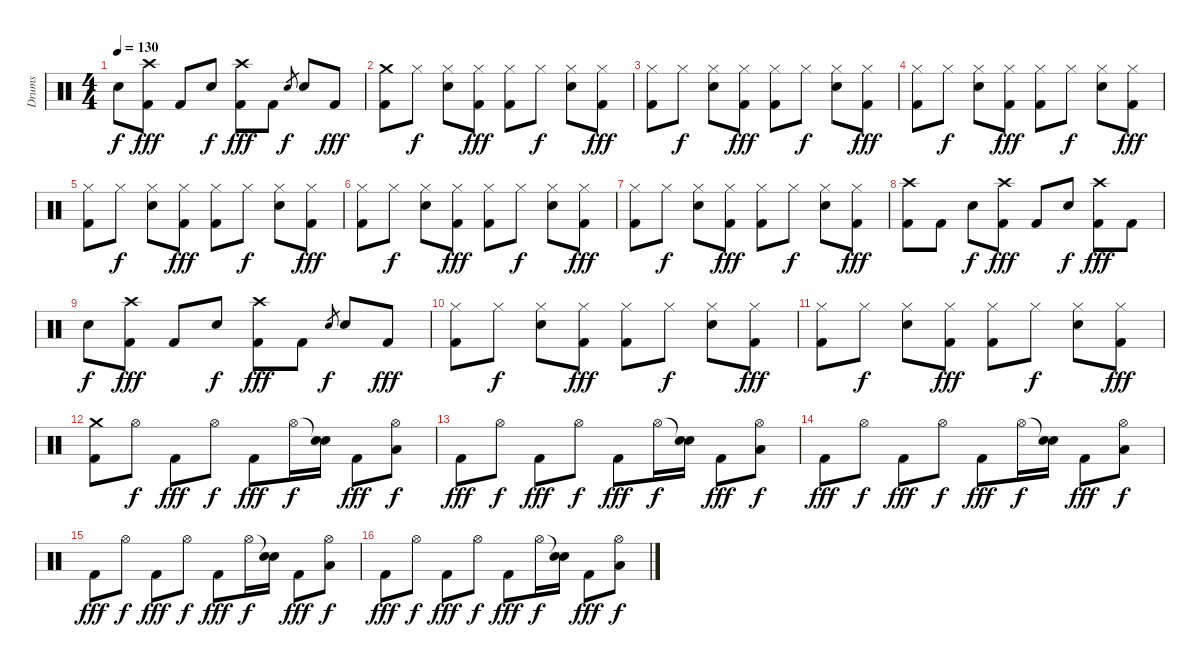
\track ("Drums" "Drums") {instrument percussion}
\staff {score}
\articulation defaults
\ts (4 4)
\tempo 130
\clef neutral
\ks c "Snare (hit) 2".8{dy f}
("Crash high (hit)" "Kick (hit) 2").8{dy fff} "Kick (hit) 2".8 "Snare (hit) 2".8{dy f} ("Crash high (hit)" "Kick (hit) 2").8{dy fff} "Kick (hit) 2".8 "Snare (hit) 2".8{gr dy f} "Snare (hit) 2".8 "Kick (hit) 2".8{dy fff} |
("Crash medium (hit)" "Kick (hit) 2").8 "Hi-Hat (closed)".8{dy f} ("Hi-Hat (closed)" "Snare (hit) 2").8 ("Hi-Hat (closed)" "Kick (hit) 2").8{dy fff} ("Hi-Hat (closed)" "Kick (hit) 2").8 "Hi-Hat (closed)".8{dy f} ("Hi-Hat (closed)" "Snare (hit) 2").8 ("Hi-Hat (closed)" "Kick (hit) 2").8{dy fff} |
("Hi-Hat (closed)" "Kick (hit) 2").8 "Hi-Hat (closed)".8{dy f} ("Hi-Hat (closed)" "Snare (hit) 2").8 ("Hi-Hat (closed)" "Kick (hit) 2").8{dy fff} ("Hi-Hat (closed)" "Kick (hit) 2").8 "Hi-Hat (closed)".8{dy f} ("Hi-Hat (closed)" "Snare (hit) 2").8 ("Hi-Hat (closed)" "Kick (hit) 2").8{dy fff} |
("Hi-Hat (closed)" "Kick (hit) 2").8 "Hi-Hat (closed)".8{dy f} ("Hi-Hat (closed)" "Snare (hit) 2").8 ("Hi-Hat (closed)" "Kick (hit) 2").8{dy fff} ("Hi-Hat (closed)" "Kick (hit) 2").8 "Hi-Hat (closed)".8{dy f} ("Hi-Hat (closed)" "Snare (hit) 2").8 ("Hi-Hat (closed)" "Kick (hit) 2").8{dy fff} |
("Hi-Hat (closed)" "Kick (hit) 2").8 "Hi-Hat (closed)".8{dy f} ("Hi-Hat (closed)" "Snare (hit) 2").8 ("Hi-Hat (closed)" "Kick (hit) 2").8{dy fff} ("Hi-Hat (closed)" "Kick (hit) 2").8 "Hi-Hat (closed)".8{dy f} ("Hi-Hat (closed)" "Snare (hit) 2").8 ("Hi-Hat (closed)" "Kick (hit) 2").8{dy fff} |
("Hi-Hat (closed)" "Kick (hit) 2").8 "Hi-Hat (closed)".8{dy f} ("Hi-Hat (closed)" "Snare (hit) 2").8 ("Hi-Hat (closed)" "Kick (hit) 2").8{dy fff} ("Hi-Hat (closed)" "Kick (hit) 2").8 "Hi-Hat (closed)".8{dy f} ("Hi-Hat (closed)" "Snare (hit) 2").8 ("Hi-Hat (closed)" "Kick (hit) 2").8{dy fff} |
("Hi-Hat (closed)" "Kick (hit) 2").8 "Hi-Hat (closed)".8{dy f} ("Hi-Hat (closed)" "Snare (hit) 2").8 ("Hi-Hat (closed)" "Kick (hit) 2").8{dy fff} ("Hi-Hat (closed)" "Kick (hit) 2").8 "Hi-Hat (closed)".8{dy f} ("Hi-Hat (closed)" "Snare (hit) 2").8 ("Hi-Hat (closed)" "Kick (hit) 2").8{dy fff} |
("Crash high (hit)" "Kick (hit) 2").8 "Kick (hit) 2".8 "Snare (hit) 2".8{dy f} ("Crash high (hit)" "Kick (hit) 2").8{dy fff} "Kick (hit) 2".8 "Snare (hit) 2".8{dy f} ("Crash high (hit)" "Kick (hit) 2").8{dy fff} "Kick (hit) 2".8 |
"Snare (hit) 2".8{dy f} ("Crash high (hit)" "Kick (hit) 2").8{dy fff} "Kick (hit) 2".8 "Snare (hit) 2".8{dy f} ("Crash high (hit)" "Kick (hit) 2").8{dy fff} "Kick (hit) 2".8 "Snare (hit) 2".8{gr dy f} "Snare (hit) 2".8 "Kick (hit) 2".8{dy fff} |
("Hi-Hat (closed)" "Kick (hit) 2").8 "Hi-Hat (closed)".8{dy f} ("Hi-Hat (closed)" "Snare (hit) 2").8 ("Hi-Hat (closed)" "Kick (hit) 2").8{dy fff} ("Hi-Hat (closed)" "Kick (hit) 2").8 "Hi-Hat (closed)".8{dy f} ("Hi-Hat (closed)" "Snare (hit) 2").8 ("Hi-Hat (closed)" "Kick (hit) 2").8{dy fff} |
("Hi-Hat (closed)" "Kick (hit) 2").8 "Hi-Hat (closed)".8{dy f} ("Hi-Hat (closed)" "Snare (hit) 2").8 ("Hi-Hat (closed)" "Kick (hit) 2").8{dy fff} ("Hi-Hat (closed)" "Kick (hit) 2").8 "Hi-Hat (closed)".8{dy f} ("Hi-Hat (closed)" "Snare (hit) 2").8 ("Hi-Hat (closed)" "Kick (hit) 2").8{dy fff} |
("Crash medium (hit)" "Kick (hit) 2").8 "Hi-Hat (open)".8{dy f} "Kick (hit) 2".8{dy fff} "Hi-Hat (open)".8{dy f} "Kick (hit) 2".8{dy fff} "Hi-Hat (open)".16{dy f} ("Snare (hit)"{t} "Snare (hit) 2").16 "Kick (hit) 2".8{dy fff} ("Hi-Hat (open)" "Low Tom (hit)").8{dy f} |
"Kick (hit) 2".8{dy fff} "Hi-Hat (open)".8{dy f} "Kick (hit) 2".8{dy fff} "Hi-Hat (open)".8{dy f} "Kick (hit) 2".8{dy fff} "Hi-Hat (open)".16{dy f} ("Snare (hit)"{t} "Snare (hit) 2").16 "Kick (hit) 2".8{dy fff} ("Hi-Hat (open)" "Low Tom (hit)").8{dy f} |
"Kick (hit) 2".8{dy fff} "Hi-Hat (open)".8{dy f} "Kick (hit) 2".8{dy fff} "Hi-Hat (open)".8{dy f} "Kick (hit) 2".8{dy fff} "Hi-Hat (open)".16{dy f} ("Snare (hit)"{t} "Snare (hit) 2").16 "Kick (hit) 2".8{dy fff} ("Hi-Hat (open)" "Low Tom (hit)").8{dy f} |
"Kick (hit) 2".8{dy fff} "Hi-Hat (open)".8{dy f} "Kick (hit) 2".8{dy fff} "Hi-Hat (open)".8{dy f} "Kick (hit) 2".8{dy fff} "Hi-Hat (open)".16{dy f} ("Snare (hit)"{t} "Snare (hit) 2").16 "Kick (hit) 2".8{dy fff} ("Hi-Hat (open)" "Low Tom (hit)").8{dy f} |
"Kick (hit) 2".8{dy fff} "Hi-Hat (open)".8{dy f} "Kick (hit) 2".8{dy fff} "Hi-Hat (open)".8{dy f} "Kick (hit) 2".8{dy fff} "Hi-Hat (open)".16{dy f} ("Snare (hit)"{t} "Snare (hit) 2").16 "Kick (hit) 2".8{dy fff} ("Hi-Hat (open)" "Low Tom (hit)").8{dy f}
